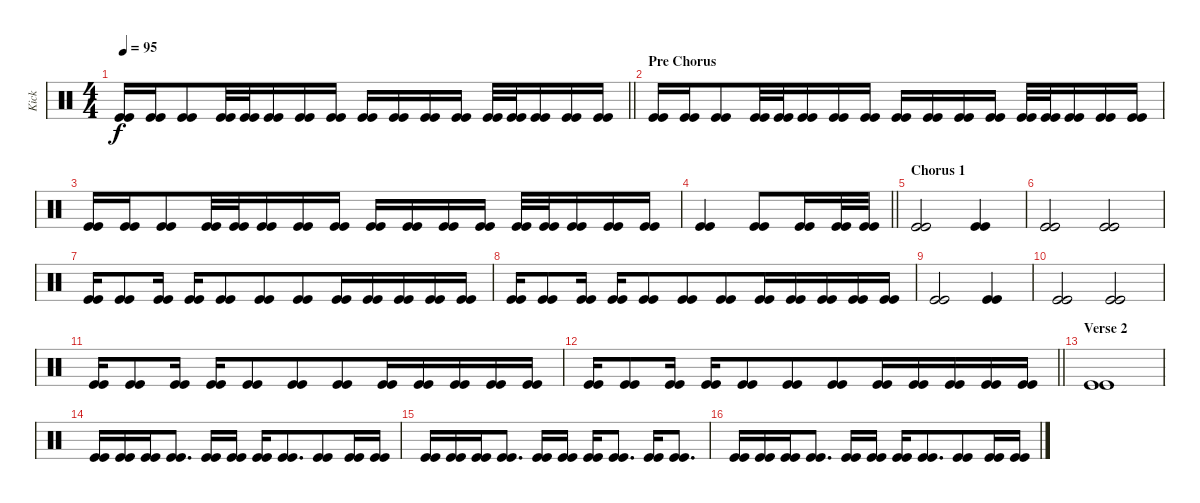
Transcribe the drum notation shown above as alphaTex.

\track ("Kick" "Kick") {instrument percussion}
\staff {score}
\articulation defaults
\ts (4 4)
\tempo 95
\clef neutral
\barLineRight lightlight
\ks c
("Kick (hit)" "Kick (hit)").16{dy f beam merge} ("Kick (hit)" "Kick (hit)").16 ("Kick (hit)" "Kick (hit)").8{beam merge} ("Kick (hit)" "Kick (hit)").32 ("Kick (hit)" "Kick (hit)").32 ("Kick (hit)" "Kick (hit)").16 ("Kick (hit)" "Kick (hit)").16 ("Kick (hit)" "Kick (hit)").16 ("Kick (hit)" "Kick (hit)").16 ("Kick (hit)" "Kick (hit)").16 ("Kick (hit)" "Kick (hit)").16 ("Kick (hit)" "Kick (hit)").16 ("Kick (hit)" "Kick (hit)").32{beam merge} ("Kick (hit)" "Kick (hit)").32 ("Kick (hit)" "Kick (hit)").16{beam merge} ("Kick (hit)" "Kick (hit)").16 ("Kick (hit)" "Kick (hit)").16 |
\section ("" "Pre Chorus")
("Kick (hit)" "Kick (hit)").16{beam merge} ("Kick (hit)" "Kick (hit)").16 ("Kick (hit)" "Kick (hit)").8{beam merge} ("Kick (hit)" "Kick (hit)").32 ("Kick (hit)" "Kick (hit)").32 ("Kick (hit)" "Kick (hit)").16 ("Kick (hit)" "Kick (hit)").16 ("Kick (hit)" "Kick (hit)").16 ("Kick (hit)" "Kick (hit)").16 ("Kick (hit)" "Kick (hit)").16 ("Kick (hit)" "Kick (hit)").16 ("Kick (hit)" "Kick (hit)").16 ("Kick (hit)" "Kick (hit)").32{beam merge} ("Kick (hit)" "Kick (hit)").32 ("Kick (hit)" "Kick (hit)").16{beam merge} ("Kick (hit)" "Kick (hit)").16 ("Kick (hit)" "Kick (hit)").16 |
("Kick (hit)" "Kick (hit)").16{beam merge} ("Kick (hit)" "Kick (hit)").16 ("Kick (hit)" "Kick (hit)").8{beam merge} ("Kick (hit)" "Kick (hit)").32 ("Kick (hit)" "Kick (hit)").32 ("Kick (hit)" "Kick (hit)").16 ("Kick (hit)" "Kick (hit)").16 ("Kick (hit)" "Kick (hit)").16 ("Kick (hit)" "Kick (hit)").16 ("Kick (hit)" "Kick (hit)").16 ("Kick (hit)" "Kick (hit)").16 ("Kick (hit)" "Kick (hit)").16 ("Kick (hit)" "Kick (hit)").32{beam merge} ("Kick (hit)" "Kick (hit)").32 ("Kick (hit)" "Kick (hit)").16{beam merge} ("Kick (hit)" "Kick (hit)").16 ("Kick (hit)" "Kick (hit)").16 |
\barLineRight lightlight
("Kick (hit)" "Kick (hit)").4 ("Kick (hit)" "Kick (hit)").8 ("Kick (hit)" "Kick (hit)").16 ("Kick (hit)" "Kick (hit)").32{beam merge} ("Kick (hit)" "Kick (hit)").32 |
\section ("" "Chorus 1")
("Kick (hit)" "Kick (hit)").2 ("Kick (hit)" "Kick (hit)").4 |
("Kick (hit)" "Kick (hit)").2 ("Kick (hit)" "Kick (hit)").2 |
("Kick (hit)" "Kick (hit)").16 ("Kick (hit)" "Kick (hit)").8 ("Kick (hit)" "Kick (hit)").16 ("Kick (hit)" "Kick (hit)").16 ("Kick (hit)" "Kick (hit)").8 ("Kick (hit)" "Kick (hit)").8{beam merge} ("Kick (hit)" "Kick (hit)").8 ("Kick (hit)" "Kick (hit)").16{beam merge} ("Kick (hit)" "Kick (hit)").16{beam merge} ("Kick (hit)" "Kick (hit)").16 ("Kick (hit)" "Kick (hit)").16 ("Kick (hit)" "Kick (hit)").16 |
("Kick (hit)" "Kick (hit)").16 ("Kick (hit)" "Kick (hit)").8 ("Kick (hit)" "Kick (hit)").16 ("Kick (hit)" "Kick (hit)").16 ("Kick (hit)" "Kick (hit)").8 ("Kick (hit)" "Kick (hit)").8{beam merge} ("Kick (hit)" "Kick (hit)").8 ("Kick (hit)" "Kick (hit)").16{beam merge} ("Kick (hit)" "Kick (hit)").16{beam merge} ("Kick (hit)" "Kick (hit)").16 ("Kick (hit)" "Kick (hit)").16 ("Kick (hit)" "Kick (hit)").16 |
("Kick (hit)" "Kick (hit)").2 ("Kick (hit)" "Kick (hit)").4 |
("Kick (hit)" "Kick (hit)").2 ("Kick (hit)" "Kick (hit)").2 |
("Kick (hit)" "Kick (hit)").16 ("Kick (hit)" "Kick (hit)").8 ("Kick (hit)" "Kick (hit)").16 ("Kick (hit)" "Kick (hit)").16 ("Kick (hit)" "Kick (hit)").8 ("Kick (hit)" "Kick (hit)").8{beam merge} ("Kick (hit)" "Kick (hit)").8 ("Kick (hit)" "Kick (hit)").16{beam merge} ("Kick (hit)" "Kick (hit)").16{beam merge} ("Kick (hit)" "Kick (hit)").16 ("Kick (hit)" "Kick (hit)").16 ("Kick (hit)" "Kick (hit)").16 |
\barLineRight lightlight
("Kick (hit)" "Kick (hit)").16 ("Kick (hit)" "Kick (hit)").8 ("Kick (hit)" "Kick (hit)").16 ("Kick (hit)" "Kick (hit)").16 ("Kick (hit)" "Kick (hit)").8 ("Kick (hit)" "Kick (hit)").8{beam merge} ("Kick (hit)" "Kick (hit)").8 ("Kick (hit)" "Kick (hit)").16{beam merge} ("Kick (hit)" "Kick (hit)").16{beam merge} ("Kick (hit)" "Kick (hit)").16 ("Kick (hit)" "Kick (hit)").16 ("Kick (hit)" "Kick (hit)").16 |
\section ("" "Verse 2")
("Kick (hit)" "Kick (hit)").1 |
("Kick (hit)" "Kick (hit)").16{beam merge} ("Kick (hit)" "Kick (hit)").16 ("Kick (hit)" "Kick (hit)").16 ("Kick (hit)" "Kick (hit)").8{d} ("Kick (hit)" "Kick (hit)").16 ("Kick (hit)" "Kick (hit)").16 ("Kick (hit)" "Kick (hit)").16 ("Kick (hit)" "Kick (hit)").8{d beam merge} ("Kick (hit)" "Kick (hit)").8 ("Kick (hit)" "Kick (hit)").16{beam merge} ("Kick (hit)" "Kick (hit)").16 |
("Kick (hit)" "Kick (hit)").16{beam merge} ("Kick (hit)" "Kick (hit)").16 ("Kick (hit)" "Kick (hit)").16 ("Kick (hit)" "Kick (hit)").8{d} ("Kick (hit)" "Kick (hit)").16 ("Kick (hit)" "Kick (hit)").16 ("Kick (hit)" "Kick (hit)").16 ("Kick (hit)" "Kick (hit)").8{d} ("Kick (hit)" "Kick (hit)").16{beam merge} ("Kick (hit)" "Kick (hit)").8{d} |
("Kick (hit)" "Kick (hit)").16{beam merge} ("Kick (hit)" "Kick (hit)").16 ("Kick (hit)" "Kick (hit)").16 ("Kick (hit)" "Kick (hit)").8{d} ("Kick (hit)" "Kick (hit)").16 ("Kick (hit)" "Kick (hit)").16 ("Kick (hit)" "Kick (hit)").16 ("Kick (hit)" "Kick (hit)").8{d beam merge} ("Kick (hit)" "Kick (hit)").8 ("Kick (hit)" "Kick (hit)").16{beam merge} ("Kick (hit)" "Kick (hit)").16
